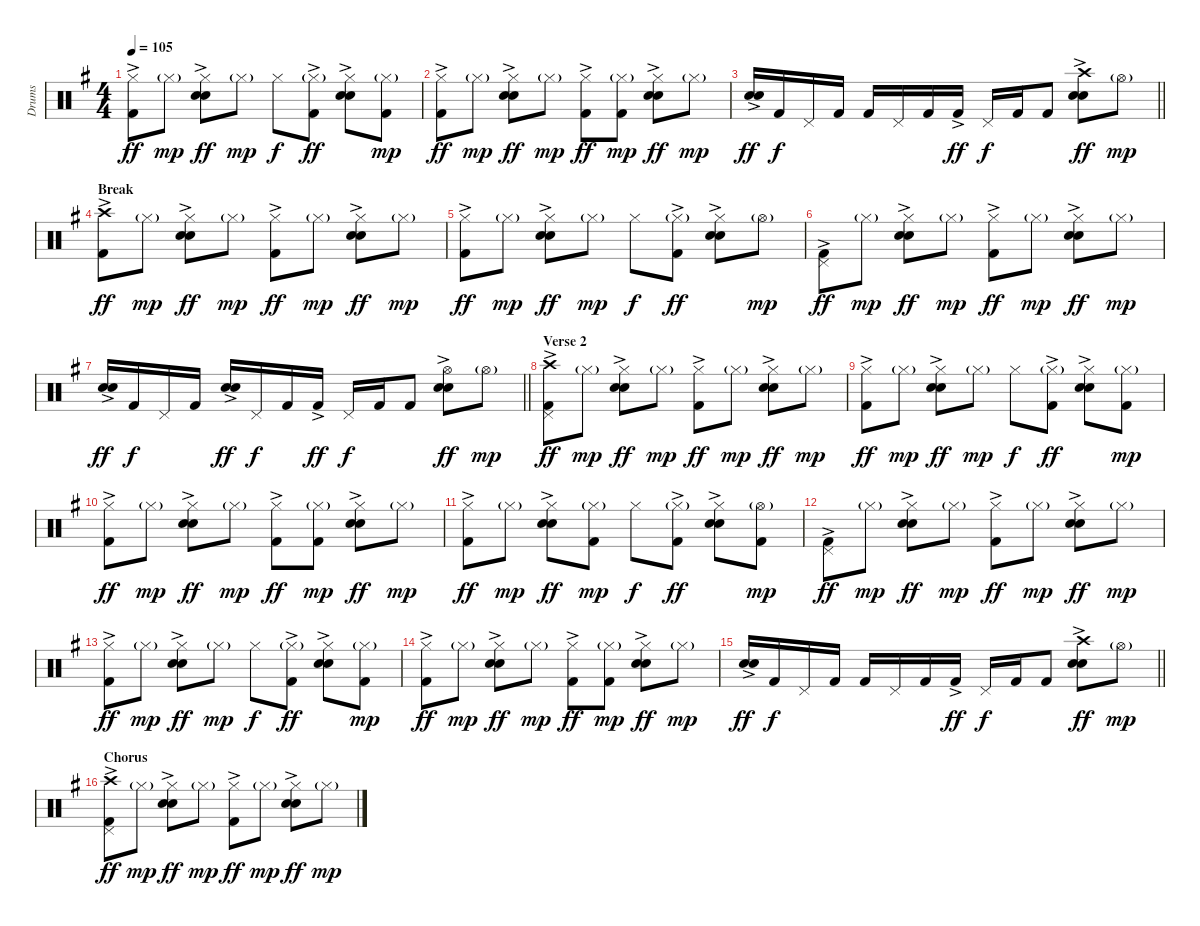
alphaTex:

\track ("Drums" "Drums") {instrument percussion}
\staff {score}
\articulation defaults
\ts (4 4)
\tempo 105
\clef neutral
\ks g
("Hi-Hat (closed)" "Kick (hit) 2"{ac}).8{dy ff} "Hi-Hat (closed)"{g}.8{dy mp} ("Hi-Hat (closed)" "Electric Snare (hit)"{ac} "Snare (hit) 2").8{dy ff} "Hi-Hat (closed)"{g}.8{dy mp} "Hi-Hat (closed)".8{dy f} ("Hi-Hat (closed)"{g} "Kick (hit) 2"{ac}).8{dy ff} ("Hi-Hat (closed)" "Electric Snare (hit)"{ac} "Snare (hit) 2").8 ("Hi-Hat (closed)"{g} "Kick (hit) 2").8{dy mp} |
("Hi-Hat (closed)" "Kick (hit) 2"{ac}).8{dy ff} "Hi-Hat (closed)"{g}.8{dy mp} ("Hi-Hat (closed)" "Electric Snare (hit)"{ac} "Snare (hit) 2").8{dy ff} "Hi-Hat (closed)"{g}.8{dy mp} ("Hi-Hat (closed)" "Kick (hit) 2"{ac}).8{dy ff} ("Hi-Hat (closed)"{g} "Kick (hit) 2").8{dy mp} ("Hi-Hat (closed)" "Electric Snare (hit)"{ac} "Snare (hit) 2").8{dy ff} "Hi-Hat (closed)"{g}.8{dy mp} |
\barLineRight lightlight
("Electric Snare (hit)"{ac} "Snare (hit) 2").16{dy ff} "Kick (hit) 2".16{dy f} "Pedal Hi-Hat (hit)".16 "Kick (hit) 2".16 "Kick (hit) 2".16 "Pedal Hi-Hat (hit)".16 "Kick (hit) 2".16 "Kick (hit) 2"{ac}.16{dy ff} "Pedal Hi-Hat (hit)".16{dy f} "Kick (hit) 2".16 "Kick (hit) 2".8 ("Crash high (hit)" "Electric Snare (hit)"{ac} "Snare (hit) 2").8{dy ff} "Hi-Hat (open)"{g}.8{dy mp} |
\section ("" "Break")
("Crash high (hit)" "Kick (hit) 2"{ac}).8{dy ff} "Hi-Hat (closed)"{g}.8{dy mp} ("Hi-Hat (closed)" "Electric Snare (hit)"{ac} "Snare (hit) 2").8{dy ff} "Hi-Hat (closed)"{g}.8{dy mp} ("Hi-Hat (closed)" "Kick (hit) 2"{ac}).8{dy ff} "Hi-Hat (closed)"{g}.8{dy mp} ("Hi-Hat (closed)" "Electric Snare (hit)"{ac} "Snare (hit) 2").8{dy ff} "Hi-Hat (closed)"{g}.8{dy mp} |
("Hi-Hat (closed)" "Kick (hit) 2"{ac}).8{dy ff} "Hi-Hat (closed)"{g}.8{dy mp} ("Hi-Hat (closed)" "Electric Snare (hit)"{ac} "Snare (hit) 2").8{dy ff} "Hi-Hat (closed)"{g}.8{dy mp} "Hi-Hat (closed)".8{dy f} ("Hi-Hat (closed)"{g} "Kick (hit) 2"{ac}).8{dy ff} ("Hi-Hat (closed)" "Electric Snare (hit)"{ac} "Snare (hit) 2").8 "Hi-Hat (open)"{g}.8{dy mp} |
("Pedal Hi-Hat (hit)" "Kick (hit) 2"{ac}).8{dy ff} "Hi-Hat (closed)"{g}.8{dy mp} ("Hi-Hat (closed)" "Electric Snare (hit)"{ac} "Snare (hit) 2").8{dy ff} "Hi-Hat (closed)"{g}.8{dy mp} ("Hi-Hat (closed)" "Kick (hit) 2"{ac}).8{dy ff} "Hi-Hat (closed)"{g}.8{dy mp} ("Hi-Hat (closed)" "Electric Snare (hit)"{ac} "Snare (hit) 2").8{dy ff} "Hi-Hat (closed)"{g}.8{dy mp} |
\barLineRight lightlight
("Electric Snare (hit)"{ac} "Snare (hit) 2").16{dy ff} "Kick (hit) 2".16{dy f} "Pedal Hi-Hat (hit)".16 "Kick (hit) 2".16 ("Electric Snare (hit)"{ac} "Snare (hit) 2").16{dy ff} "Pedal Hi-Hat (hit)".16{dy f} "Kick (hit) 2".16 "Kick (hit) 2"{ac}.16{dy ff} "Pedal Hi-Hat (hit)".16{dy f} "Kick (hit) 2".16 "Kick (hit) 2".8 ("Hi-Hat (open)" "Electric Snare (hit)"{ac} "Snare (hit) 2").8{dy ff} "Hi-Hat (open)"{g}.8{dy mp} |
\section ("" "Verse 2")
("Pedal Hi-Hat (hit)" "Crash high (hit)" "Kick (hit) 2"{ac}).8{dy ff} "Hi-Hat (closed)"{g}.8{dy mp} ("Hi-Hat (closed)" "Electric Snare (hit)"{ac} "Snare (hit) 2").8{dy ff} "Hi-Hat (closed)"{g}.8{dy mp} ("Hi-Hat (closed)" "Kick (hit) 2"{ac}).8{dy ff} "Hi-Hat (closed)"{g}.8{dy mp} ("Hi-Hat (closed)" "Electric Snare (hit)"{ac} "Snare (hit) 2").8{dy ff} "Hi-Hat (closed)"{g}.8{dy mp} |
("Hi-Hat (closed)" "Kick (hit) 2"{ac}).8{dy ff} "Hi-Hat (closed)"{g}.8{dy mp} ("Hi-Hat (closed)" "Electric Snare (hit)"{ac} "Snare (hit) 2").8{dy ff} "Hi-Hat (closed)"{g}.8{dy mp} "Hi-Hat (closed)".8{dy f} ("Hi-Hat (closed)"{g} "Kick (hit) 2"{ac}).8{dy ff} ("Hi-Hat (closed)" "Electric Snare (hit)"{ac} "Snare (hit) 2").8 ("Hi-Hat (closed)"{g} "Kick (hit) 2").8{dy mp} |
("Hi-Hat (closed)" "Kick (hit) 2"{ac}).8{dy ff} "Hi-Hat (closed)"{g}.8{dy mp} ("Hi-Hat (closed)" "Electric Snare (hit)"{ac} "Snare (hit) 2").8{dy ff} "Hi-Hat (closed)"{g}.8{dy mp} ("Hi-Hat (closed)" "Kick (hit) 2"{ac}).8{dy ff} ("Hi-Hat (closed)"{g} "Kick (hit) 2").8{dy mp} ("Hi-Hat (closed)" "Electric Snare (hit)"{ac} "Snare (hit) 2").8{dy ff} "Hi-Hat (closed)"{g}.8{dy mp} |
("Hi-Hat (closed)" "Kick (hit) 2"{ac}).8{dy ff} "Hi-Hat (closed)"{g}.8{dy mp} ("Hi-Hat (closed)" "Electric Snare (hit)"{ac} "Snare (hit) 2").8{dy ff} ("Hi-Hat (closed)"{g} "Kick (hit) 2").8{dy mp} "Hi-Hat (closed)".8{dy f} ("Hi-Hat (closed)"{g} "Kick (hit) 2"{ac}).8{dy ff} ("Hi-Hat (closed)" "Electric Snare (hit)"{ac} "Snare (hit) 2").8 ("Hi-Hat (open)"{g} "Kick (hit) 2").8{dy mp} |
("Pedal Hi-Hat (hit)" "Kick (hit) 2"{ac}).8{dy ff} "Hi-Hat (closed)"{g}.8{dy mp} ("Hi-Hat (closed)" "Electric Snare (hit)"{ac} "Snare (hit) 2").8{dy ff} "Hi-Hat (closed)"{g}.8{dy mp} ("Hi-Hat (closed)" "Kick (hit) 2"{ac}).8{dy ff} "Hi-Hat (closed)"{g}.8{dy mp} ("Hi-Hat (closed)" "Electric Snare (hit)"{ac} "Snare (hit) 2").8{dy ff} "Hi-Hat (closed)"{g}.8{dy mp} |
("Hi-Hat (closed)" "Kick (hit) 2"{ac}).8{dy ff} "Hi-Hat (closed)"{g}.8{dy mp} ("Hi-Hat (closed)" "Electric Snare (hit)"{ac} "Snare (hit) 2").8{dy ff} "Hi-Hat (closed)"{g}.8{dy mp} "Hi-Hat (closed)".8{dy f} ("Hi-Hat (closed)"{g} "Kick (hit) 2"{ac}).8{dy ff} ("Hi-Hat (closed)" "Electric Snare (hit)"{ac} "Snare (hit) 2").8 ("Hi-Hat (closed)"{g} "Kick (hit) 2").8{dy mp} |
("Hi-Hat (closed)" "Kick (hit) 2"{ac}).8{dy ff} "Hi-Hat (closed)"{g}.8{dy mp} ("Hi-Hat (closed)" "Electric Snare (hit)"{ac} "Snare (hit) 2").8{dy ff} "Hi-Hat (closed)"{g}.8{dy mp} ("Hi-Hat (closed)" "Kick (hit) 2"{ac}).8{dy ff} ("Hi-Hat (closed)"{g} "Kick (hit) 2").8{dy mp} ("Hi-Hat (closed)" "Electric Snare (hit)"{ac} "Snare (hit) 2").8{dy ff} "Hi-Hat (closed)"{g}.8{dy mp} |
\barLineRight lightlight
("Electric Snare (hit)"{ac} "Snare (hit) 2").16{dy ff} "Kick (hit) 2".16{dy f} "Pedal Hi-Hat (hit)".16 "Kick (hit) 2".16 "Kick (hit) 2".16 "Pedal Hi-Hat (hit)".16 "Kick (hit) 2".16 "Kick (hit) 2"{ac}.16{dy ff} "Pedal Hi-Hat (hit)".16{dy f} "Kick (hit) 2".16 "Kick (hit) 2".8 ("Crash high (hit)" "Electric Snare (hit)"{ac} "Snare (hit) 2").8{dy ff} "Hi-Hat (open)"{g}.8{dy mp} |
\section ("" "Chorus")
("Pedal Hi-Hat (hit)" "Crash high (hit)" "Kick (hit) 2"{ac}).8{dy ff} "Hi-Hat (closed)"{g}.8{dy mp} ("Hi-Hat (closed)" "Electric Snare (hit)"{ac} "Snare (hit) 2").8{dy ff} "Hi-Hat (closed)"{g}.8{dy mp} ("Hi-Hat (closed)" "Kick (hit) 2"{ac}).8{dy ff} "Hi-Hat (closed)"{g}.8{dy mp} ("Hi-Hat (closed)" "Electric Snare (hit)"{ac} "Snare (hit) 2").8{dy ff} "Hi-Hat (closed)"{g}.8{dy mp}
